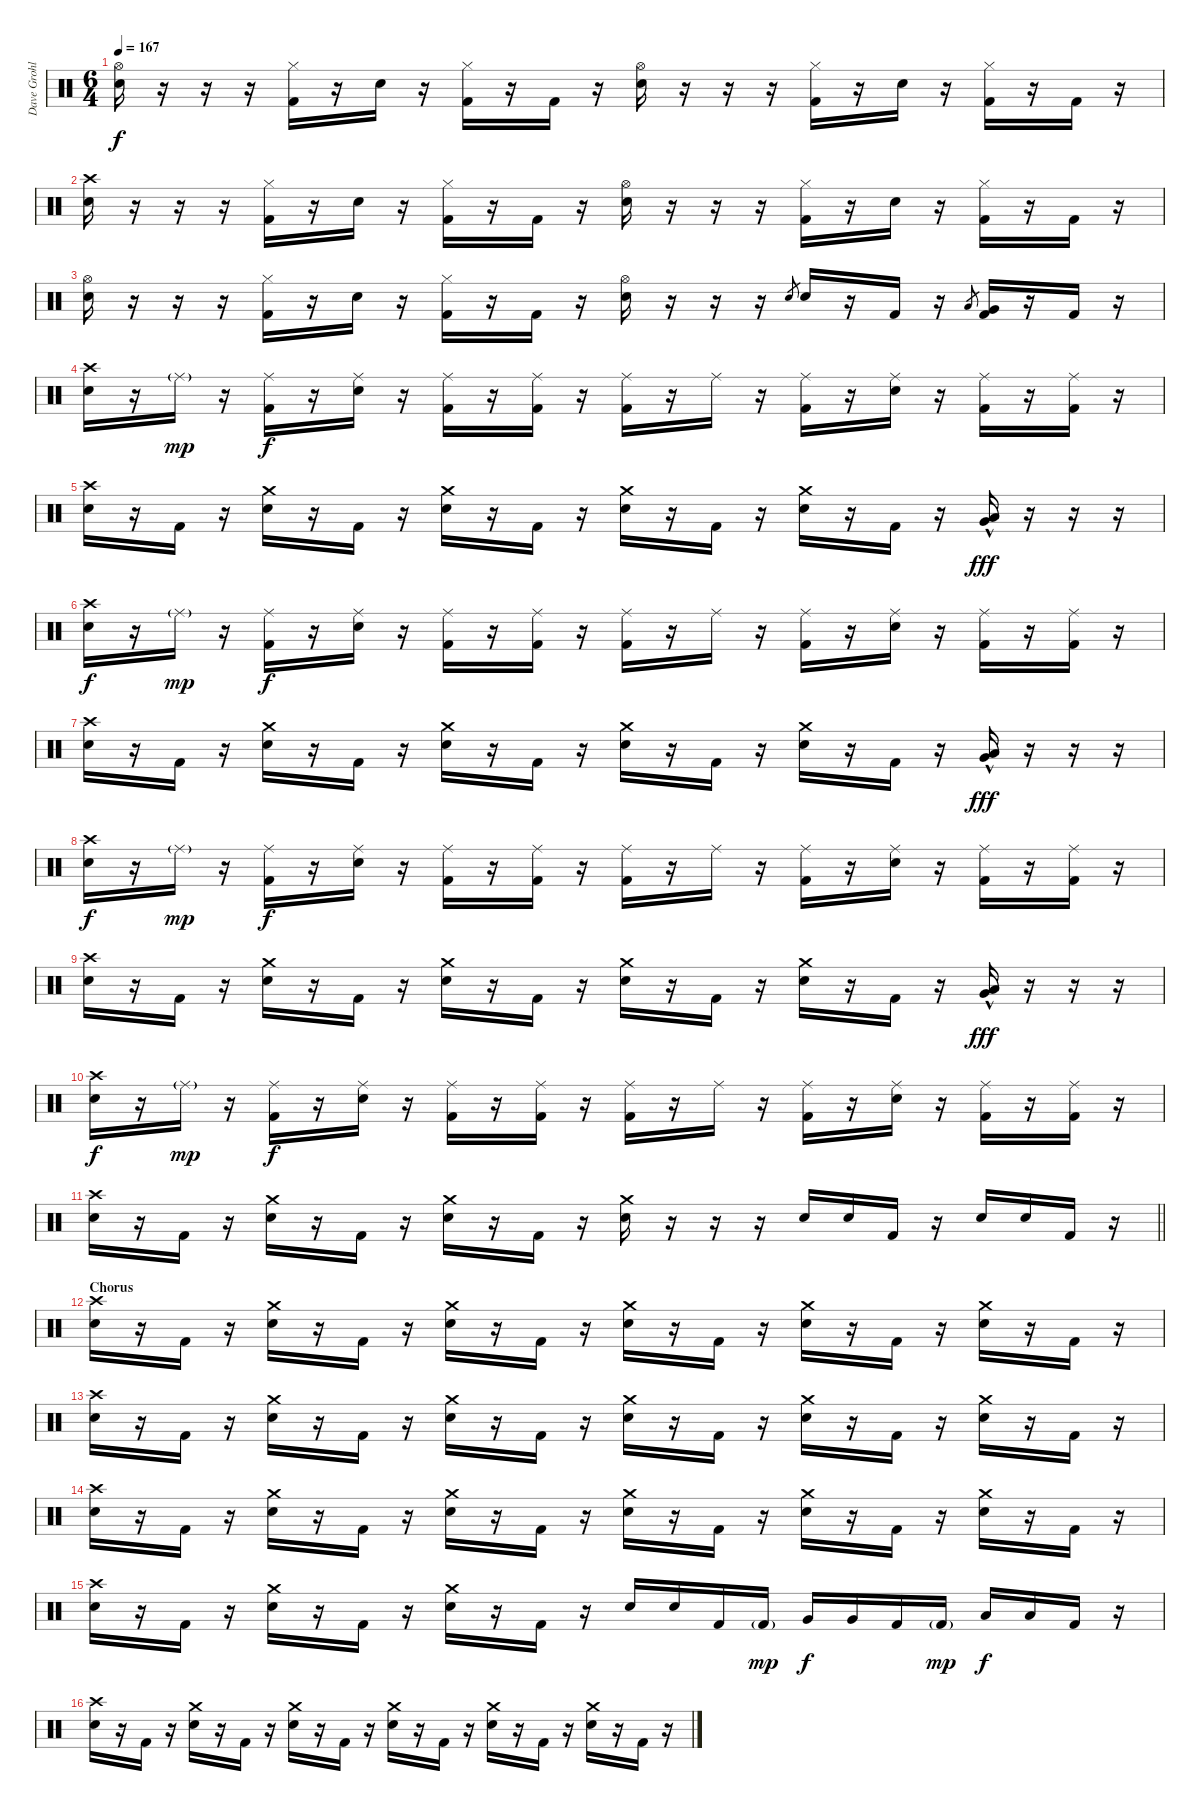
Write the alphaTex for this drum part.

\track ("Dave Grohl" "Dave Grohl") {instrument percussion}
\staff {score}
\articulation defaults
\ts (6 4)
\tempo 167
\clef neutral
\ks c
("Hi-Hat (open)" "Electric Snare (hit)").16{dy f} r.16 r.16 r.16 ("Hi-Hat (closed)" "Kick (hit) 2").16 r.16 "Electric Snare (hit)".16 r.16 ("Hi-Hat (closed)" "Kick (hit) 2").16 r.16 "Kick (hit) 2".16 r.16 ("Hi-Hat (open)" "Electric Snare (hit)").16 r.16 r.16 r.16 ("Hi-Hat (closed)" "Kick (hit) 2").16 r.16 "Electric Snare (hit)".16 r.16 ("Hi-Hat (closed)" "Kick (hit) 2").16 r.16 "Kick (hit) 2".16 r.16 |
("Crash high (hit)" "Electric Snare (hit)").16 r.16 r.16 r.16 ("Hi-Hat (closed)" "Kick (hit) 2").16 r.16 "Electric Snare (hit)".16 r.16 ("Hi-Hat (closed)" "Kick (hit) 2").16 r.16 "Kick (hit) 2".16 r.16 ("Hi-Hat (open)" "Electric Snare (hit)").16 r.16 r.16 r.16 ("Hi-Hat (closed)" "Kick (hit) 2").16 r.16 "Electric Snare (hit)".16 r.16 ("Hi-Hat (closed)" "Kick (hit) 2").16 r.16 "Kick (hit) 2".16 r.16 |
("Hi-Hat (open)" "Electric Snare (hit)").16 r.16 r.16 r.16 ("Hi-Hat (closed)" "Kick (hit) 2").16 r.16 "Electric Snare (hit)".16 r.16 ("Hi-Hat (closed)" "Kick (hit) 2").16 r.16 "Kick (hit) 2".16 r.16 ("Hi-Hat (open)" "Electric Snare (hit)").16 r.16 r.16 r.16 "Electric Snare (hit)".8{gr} "Electric Snare (hit)".16 r.16 "Kick (hit) 2".16 r.16 "Low Tom (hit)".8{gr} ("Very Low Tom (hit)" "Kick (hit) 2").16 r.16 "Kick (hit) 2".16 r.16 |
("Crash high (hit)" "Electric Snare (hit)").16 r.16 "Ride (middle)"{g}.16{dy mp} r.16 ("Ride (middle)" "Kick (hit) 2").16{dy f} r.16 ("Ride (middle)" "Electric Snare (hit)").16 r.16 ("Ride (middle)" "Kick (hit) 2").16 r.16 ("Ride (middle)" "Kick (hit) 2").16 r.16 ("Ride (middle)" "Kick (hit) 2").16 r.16 "Ride (middle)".16 r.16 ("Ride (middle)" "Kick (hit) 2").16 r.16 ("Ride (middle)" "Electric Snare (hit)").16 r.16 ("Ride (middle)" "Kick (hit) 2").16 r.16 ("Ride (middle)" "Kick (hit) 2").16 r.16 |
("Crash high (hit)" "Electric Snare (hit)").16 r.16 "Kick (hit) 2".16 r.16 ("Crash medium (hit)" "Electric Snare (hit)").16 r.16 "Kick (hit) 2".16 r.16 ("Crash medium (hit)" "Electric Snare (hit)").16 r.16 "Kick (hit) 2".16 r.16 ("Crash medium (hit)" "Electric Snare (hit)").16 r.16 "Kick (hit) 2".16 r.16 ("Crash medium (hit)" "Electric Snare (hit)").16 r.16 "Kick (hit) 2".16 r.16 ("Low Tom (hit)"{hac} "Very Low Tom (hit)"{hac}).16{dy fff} r.16 r.16 r.16 |
("Crash high (hit)" "Electric Snare (hit)").16{dy f} r.16 "Ride (middle)"{g}.16{dy mp} r.16 ("Ride (middle)" "Kick (hit) 2").16{dy f} r.16 ("Ride (middle)" "Electric Snare (hit)").16 r.16 ("Ride (middle)" "Kick (hit) 2").16 r.16 ("Ride (middle)" "Kick (hit) 2").16 r.16 ("Ride (middle)" "Kick (hit) 2").16 r.16 "Ride (middle)".16 r.16 ("Ride (middle)" "Kick (hit) 2").16 r.16 ("Ride (middle)" "Electric Snare (hit)").16 r.16 ("Ride (middle)" "Kick (hit) 2").16 r.16 ("Ride (middle)" "Kick (hit) 2").16 r.16 |
("Crash high (hit)" "Electric Snare (hit)").16 r.16 "Kick (hit) 2".16 r.16 ("Crash medium (hit)" "Electric Snare (hit)").16 r.16 "Kick (hit) 2".16 r.16 ("Crash medium (hit)" "Electric Snare (hit)").16 r.16 "Kick (hit) 2".16 r.16 ("Crash medium (hit)" "Electric Snare (hit)").16 r.16 "Kick (hit) 2".16 r.16 ("Crash medium (hit)" "Electric Snare (hit)").16 r.16 "Kick (hit) 2".16 r.16 ("Low Tom (hit)"{hac} "Very Low Tom (hit)"{hac}).16{dy fff} r.16 r.16 r.16 |
("Crash high (hit)" "Electric Snare (hit)").16{dy f} r.16 "Ride (middle)"{g}.16{dy mp} r.16 ("Ride (middle)" "Kick (hit) 2").16{dy f} r.16 ("Ride (middle)" "Electric Snare (hit)").16 r.16 ("Ride (middle)" "Kick (hit) 2").16 r.16 ("Ride (middle)" "Kick (hit) 2").16 r.16 ("Ride (middle)" "Kick (hit) 2").16 r.16 "Ride (middle)".16 r.16 ("Ride (middle)" "Kick (hit) 2").16 r.16 ("Ride (middle)" "Electric Snare (hit)").16 r.16 ("Ride (middle)" "Kick (hit) 2").16 r.16 ("Ride (middle)" "Kick (hit) 2").16 r.16 |
("Crash high (hit)" "Electric Snare (hit)").16 r.16 "Kick (hit) 2".16 r.16 ("Crash medium (hit)" "Electric Snare (hit)").16 r.16 "Kick (hit) 2".16 r.16 ("Crash medium (hit)" "Electric Snare (hit)").16 r.16 "Kick (hit) 2".16 r.16 ("Crash medium (hit)" "Electric Snare (hit)").16 r.16 "Kick (hit) 2".16 r.16 ("Crash medium (hit)" "Electric Snare (hit)").16 r.16 "Kick (hit) 2".16 r.16 ("Low Tom (hit)"{hac} "Very Low Tom (hit)"{hac}).16{dy fff} r.16 r.16 r.16 |
("Crash high (hit)" "Electric Snare (hit)").16{dy f} r.16 "Ride (middle)"{g}.16{dy mp} r.16 ("Ride (middle)" "Kick (hit) 2").16{dy f} r.16 ("Ride (middle)" "Electric Snare (hit)").16 r.16 ("Ride (middle)" "Kick (hit) 2").16 r.16 ("Ride (middle)" "Kick (hit) 2").16 r.16 ("Ride (middle)" "Kick (hit) 2").16 r.16 "Ride (middle)".16 r.16 ("Ride (middle)" "Kick (hit) 2").16 r.16 ("Ride (middle)" "Electric Snare (hit)").16 r.16 ("Ride (middle)" "Kick (hit) 2").16 r.16 ("Ride (middle)" "Kick (hit) 2").16 r.16 |
\barLineRight lightlight
("Crash high (hit)" "Electric Snare (hit)").16 r.16 "Kick (hit) 2".16 r.16 ("Crash medium (hit)" "Electric Snare (hit)").16 r.16 "Kick (hit) 2".16 r.16 ("Crash medium (hit)" "Electric Snare (hit)").16 r.16 "Kick (hit) 2".16 r.16 ("Crash medium (hit)" "Electric Snare (hit)").16 r.16 r.16 r.16 "Electric Snare (hit)".16 "Electric Snare (hit)".16 "Kick (hit) 2".16 r.16 "Electric Snare (hit)".16 "Electric Snare (hit)".16 "Kick (hit) 2".16 r.16 |
\section ("" "Chorus")
("Crash high (hit)" "Electric Snare (hit)").16 r.16 "Kick (hit) 2".16 r.16 ("Crash medium (hit)" "Electric Snare (hit)").16 r.16 "Kick (hit) 2".16 r.16 ("Crash medium (hit)" "Electric Snare (hit)").16 r.16 "Kick (hit) 2".16 r.16 ("Crash medium (hit)" "Electric Snare (hit)").16 r.16 "Kick (hit) 2".16 r.16 ("Crash medium (hit)" "Electric Snare (hit)").16 r.16 "Kick (hit) 2".16 r.16 ("Crash medium (hit)" "Electric Snare (hit)").16 r.16 "Kick (hit) 2".16 r.16 |
("Crash high (hit)" "Electric Snare (hit)").16 r.16 "Kick (hit) 2".16 r.16 ("Crash medium (hit)" "Electric Snare (hit)").16 r.16 "Kick (hit) 2".16 r.16 ("Crash medium (hit)" "Electric Snare (hit)").16 r.16 "Kick (hit) 2".16 r.16 ("Crash medium (hit)" "Electric Snare (hit)").16 r.16 "Kick (hit) 2".16 r.16 ("Crash medium (hit)" "Electric Snare (hit)").16 r.16 "Kick (hit) 2".16 r.16 ("Crash medium (hit)" "Electric Snare (hit)").16 r.16 "Kick (hit) 2".16 r.16 |
("Crash high (hit)" "Electric Snare (hit)").16 r.16 "Kick (hit) 2".16 r.16 ("Crash medium (hit)" "Electric Snare (hit)").16 r.16 "Kick (hit) 2".16 r.16 ("Crash medium (hit)" "Electric Snare (hit)").16 r.16 "Kick (hit) 2".16 r.16 ("Crash medium (hit)" "Electric Snare (hit)").16 r.16 "Kick (hit) 2".16 r.16 ("Crash medium (hit)" "Electric Snare (hit)").16 r.16 "Kick (hit) 2".16 r.16 ("Crash medium (hit)" "Electric Snare (hit)").16 r.16 "Kick (hit) 2".16 r.16 |
("Crash high (hit)" "Electric Snare (hit)").16 r.16 "Kick (hit) 2".16 r.16 ("Crash medium (hit)" "Electric Snare (hit)").16 r.16 "Kick (hit) 2".16 r.16 ("Crash medium (hit)" "Electric Snare (hit)").16 r.16 "Kick (hit) 2".16 r.16 "Electric Snare (hit)".16 "Electric Snare (hit)".16 "Kick (hit) 2".16 "Kick (hit) 2"{g}.16{dy mp} "Very Low Tom (hit)".16{dy f} "Very Low Tom (hit)".16 "Kick (hit) 2".16 "Kick (hit) 2"{g}.16{dy mp} "Low Floor Tom (hit)".16{dy f} "Low Floor Tom (hit)".16 "Kick (hit) 2".16 r.16 |
("Crash high (hit)" "Electric Snare (hit)").16 r.16 "Kick (hit) 2".16 r.16 ("Crash medium (hit)" "Electric Snare (hit)").16 r.16 "Kick (hit) 2".16 r.16 ("Crash medium (hit)" "Electric Snare (hit)").16 r.16 "Kick (hit) 2".16 r.16 ("Crash medium (hit)" "Electric Snare (hit)").16 r.16 "Kick (hit) 2".16 r.16 ("Crash medium (hit)" "Electric Snare (hit)").16 r.16 "Kick (hit) 2".16 r.16 ("Crash medium (hit)" "Electric Snare (hit)").16 r.16 "Kick (hit) 2".16 r.16
